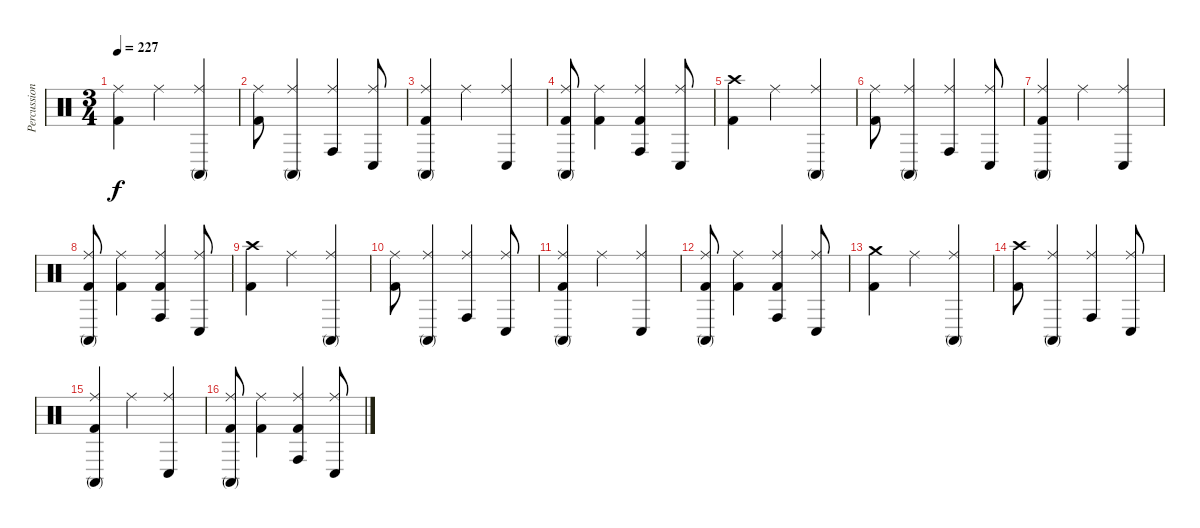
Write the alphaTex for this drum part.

\track ("Percussion" "Percussion") {instrument percussion}
\staff {score}
\articulation defaults
\ts (3 4)
\tempo 227
\clef neutral
\ks c
("Ride (middle)" "Kick (hit) 2").4{dy f} "Ride (middle)".4 ("Ride (middle)" "Conga high (mute)").4 |
("Ride (middle)" "Kick (hit) 2").8 ("Ride (middle)" "Conga high (mute)").4 ("Ride (middle)" "Conga high (hit)").4 ("Ride (middle)" "Conga low (hit)").8 |
("Ride (middle)" "Conga high (mute)" "Kick (hit) 2").4 "Ride (middle)".4 ("Ride (middle)" "Conga low (hit)").4 |
("Ride (middle)" "Conga high (mute)" "Kick (hit) 2").8 ("Ride (middle)" "Kick (hit) 2").4 ("Ride (middle)" "Conga high (hit)" "Kick (hit) 2").4 ("Ride (middle)" "Conga low (hit)").8 |
("Crash high (hit)" "Kick (hit) 2").4 "Ride (middle)".4 ("Ride (middle)" "Conga high (mute)").4 |
("Ride (middle)" "Kick (hit) 2").8 ("Ride (middle)" "Conga high (mute)").4 ("Ride (middle)" "Conga high (hit)").4 ("Ride (middle)" "Conga low (hit)").8 |
("Ride (middle)" "Conga high (mute)" "Kick (hit) 2").4 "Ride (middle)".4 ("Ride (middle)" "Conga low (hit)").4 |
("Ride (middle)" "Conga high (mute)" "Kick (hit) 2").8 ("Ride (middle)" "Kick (hit) 2").4 ("Ride (middle)" "Conga high (hit)" "Kick (hit) 2").4 ("Ride (middle)" "Conga low (hit)").8 |
("Crash high (hit)" "Kick (hit) 2").4 "Ride (middle)".4 ("Ride (middle)" "Conga high (mute)").4 |
("Ride (middle)" "Kick (hit) 2").8 ("Ride (middle)" "Conga high (mute)").4 ("Ride (middle)" "Conga high (hit)").4 ("Ride (middle)" "Conga low (hit)").8 |
("Ride (middle)" "Conga high (mute)" "Kick (hit) 2").4 "Ride (middle)".4 ("Ride (middle)" "Conga low (hit)").4 |
("Ride (middle)" "Conga high (mute)" "Kick (hit) 2").8 ("Ride (middle)" "Kick (hit) 2").4 ("Ride (middle)" "Conga high (hit)" "Kick (hit) 2").4 ("Ride (middle)" "Conga low (hit)").8 |
("Crash medium (hit)" "Kick (hit) 2").4 "Ride (middle)".4 ("Ride (middle)" "Conga high (mute)").4 |
("Crash high (hit)" "Kick (hit) 2").8 ("Ride (middle)" "Conga high (mute)").4 ("Ride (middle)" "Conga high (hit)").4 ("Ride (middle)" "Conga low (hit)").8 |
("Ride (middle)" "Conga high (mute)" "Kick (hit) 2").4 "Ride (middle)".4 ("Ride (middle)" "Conga low (hit)").4 |
("Ride (middle)" "Conga high (mute)" "Kick (hit) 2").8 ("Ride (middle)" "Kick (hit) 2").4 ("Ride (middle)" "Conga high (hit)" "Kick (hit) 2").4 ("Ride (middle)" "Conga low (hit)").8
